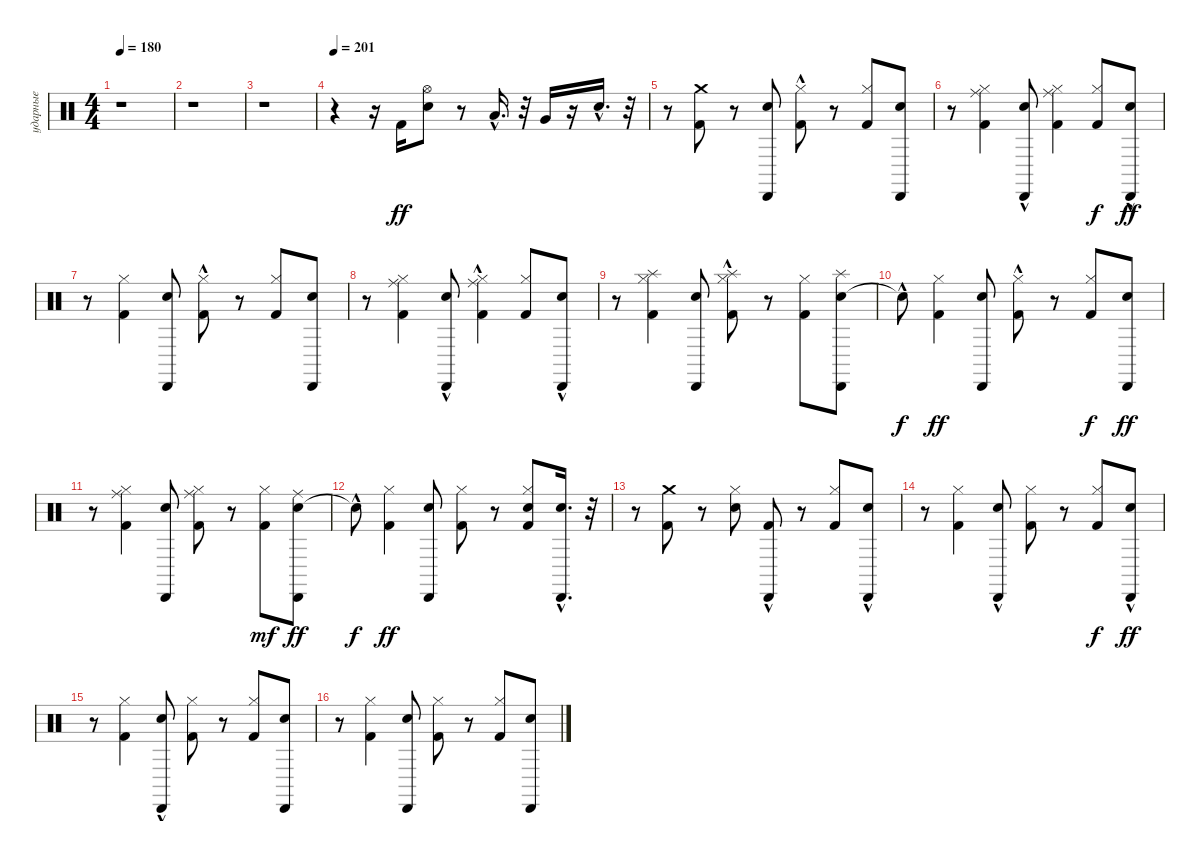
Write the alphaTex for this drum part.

\track ("ударные" "ударные") {instrument percussion}
\staff {score}
\articulation defaults
\ts (4 4)
\tempo 180
\clef neutral
\ks c
r.1{dy ff} |
r.1 |
r.1 |
\tempo 201
r.4 r.16 "Kick (hit) 2".16 ("Electric Snare (hit)" "Hi-Hat (open)").8 r.8 "Low Tom (hit)"{hac}.16{d} r.32 "Very Low Tom (hit)".16 r.16 "Electric Snare (hit)"{hac}.16{d} r.32 |
r.8 ("Kick (hit) 2" "Crash medium (hit)").8 r.8 ("Electric Snare (hit)" "Cabasa (hit)").8 ("Kick (hit) 2" "Hi-Hat (closed)"{hac}).8 r.8 ("Kick (hit) 2" "Hi-Hat (closed)").8 ("Electric Snare (hit)" "Cabasa (hit)").8 |
r.8 ("Kick (hit) 2" "Hi-Hat (closed)" "Ride (middle)").4 ("Electric Snare (hit)" "Cabasa (hit)"{hac}).8 ("Kick (hit) 2" "Hi-Hat (closed)" "Ride (middle)").4 ("Kick (hit) 2" "Hi-Hat (closed)").8{dy f} ("Electric Snare (hit)" "Cabasa (hit)"{hac}).8{dy ff} |
r.8 ("Kick (hit) 2" "Hi-Hat (closed)").4 ("Electric Snare (hit)" "Cabasa (hit)").8 ("Kick (hit) 2" "Hi-Hat (closed)"{hac}).8 r.8 ("Kick (hit) 2" "Hi-Hat (closed)").8 ("Electric Snare (hit)" "Cabasa (hit)").8 |
r.8 ("Kick (hit) 2" "Hi-Hat (closed)" "Ride (middle)").4 ("Electric Snare (hit)" "Cabasa (hit)"{hac}).8 ("Kick (hit) 2" "Hi-Hat (closed)"{hac} "Ride (middle)"{hac}).4 ("Kick (hit) 2" "Hi-Hat (closed)").8 ("Electric Snare (hit)" "Cabasa (hit)"{hac}).8 |
r.8 ("Kick (hit) 2" "Hi-Hat (closed)" "Splash (hit)").4 ("Electric Snare (hit)" "Cabasa (hit)").8 ("Kick (hit) 2" "Hi-Hat (closed)"{hac} "Splash (hit)").8 r.8 ("Kick (hit) 2" "Hi-Hat (closed)").8 ("Electric Snare (hit)" "Splash (hit)" "Cabasa (hit)").8 |
"Snare (hit)"{hac t}.8{dy f} ("Kick (hit) 2" "Hi-Hat (closed)").4{dy ff} ("Electric Snare (hit)" "Cabasa (hit)").8 ("Kick (hit) 2" "Hi-Hat (closed)"{hac}).8 r.8 ("Kick (hit) 2" "Hi-Hat (closed)").8{dy f} ("Electric Snare (hit)" "Cabasa (hit)").8{dy ff} |
r.8 ("Kick (hit) 2" "Hi-Hat (closed)" "Ride (middle)").4 ("Electric Snare (hit)" "Cabasa (hit)").8 ("Kick (hit) 2" "Hi-Hat (closed)" "Ride (middle)").8 r.8 ("Kick (hit) 2" "Hi-Hat (closed)").8{dy mf} ("Electric Snare (hit)" "Ride (middle)" "Cabasa (hit)").8{dy ff} |
"Snare (hit)"{hac t}.8{dy f} ("Kick (hit) 2" "Hi-Hat (closed)").4{dy ff} ("Electric Snare (hit)" "Cabasa (hit)").8 ("Kick (hit) 2" "Hi-Hat (closed)").8 r.8 ("Kick (hit) 2" "Electric Snare (hit)" "Hi-Hat (closed)").8 ("Electric Snare (hit)" "Cabasa (hit)"{hac}).16{d} r.32 |
r.8 ("Kick (hit) 2" "Crash medium (hit)").8 r.8 ("Electric Snare (hit)" "Hi-Hat (closed)").8 ("Kick (hit) 2" "Cabasa (hit)"{hac}).8 r.8 ("Kick (hit) 2" "Hi-Hat (closed)").8 ("Electric Snare (hit)" "Cabasa (hit)"{hac}).8 |
r.8 ("Kick (hit) 2" "Hi-Hat (closed)").4 ("Electric Snare (hit)" "Cabasa (hit)"{hac}).8 ("Kick (hit) 2" "Hi-Hat (closed)").8 r.8 ("Kick (hit) 2" "Hi-Hat (closed)").8{dy f} ("Electric Snare (hit)" "Cabasa (hit)"{hac}).8{dy ff} |
r.8 ("Kick (hit) 2" "Hi-Hat (closed)").4 ("Electric Snare (hit)" "Cabasa (hit)"{hac}).8 ("Kick (hit) 2" "Hi-Hat (closed)").8 r.8 ("Kick (hit) 2" "Hi-Hat (closed)").8 ("Electric Snare (hit)" "Cabasa (hit)").8 |
r.8 ("Kick (hit) 2" "Hi-Hat (closed)").4 ("Electric Snare (hit)" "Cabasa (hit)").8 ("Kick (hit) 2" "Hi-Hat (closed)").8 r.8 ("Kick (hit) 2" "Hi-Hat (closed)").8 ("Electric Snare (hit)" "Cabasa (hit)").8
